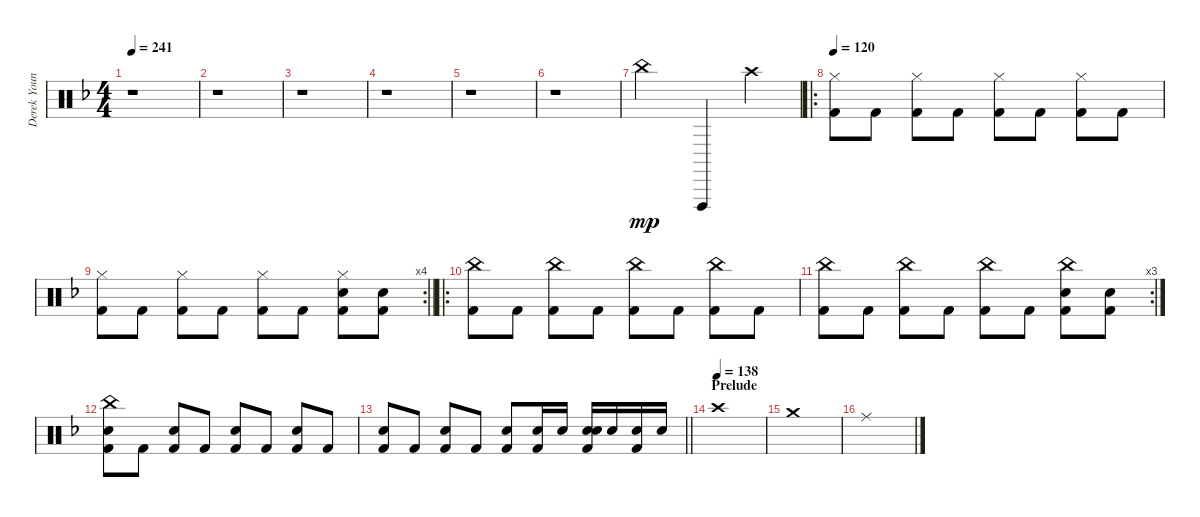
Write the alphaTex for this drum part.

\track ("Derek Youngsma" "Derek Youn") {instrument percussion}
\staff {score}
\articulation defaults
\ts (4 4)
\tempo 241
\clef neutral
\ks f
r.1{dy mp} |
r.1 |
r.1 |
r.1 |
r.1 |
r.1 |
"China (hit)".2 "Vibraslap (hit)".4 "Crash high (hit)".4 |
\ro
\tempo 120
("Hi-Hat (closed)" "Kick (hit) 2").8 "Kick (hit) 2".8 ("Hi-Hat (closed)" "Kick (hit) 2").8 "Kick (hit) 2".8 ("Hi-Hat (closed)" "Kick (hit) 2").8 "Kick (hit) 2".8 ("Hi-Hat (closed)" "Kick (hit) 2").8 "Kick (hit) 2".8 |
\rc 4
\barLineRight lightlight
("Hi-Hat (closed)" "Kick (hit) 2").8 "Kick (hit) 2".8 ("Hi-Hat (closed)" "Kick (hit) 2").8 "Kick (hit) 2".8 ("Hi-Hat (closed)" "Kick (hit) 2").8 "Kick (hit) 2".8 ("Hi-Hat (closed)" "Electric Snare (hit)" "Kick (hit) 2").8 ("Electric Snare (hit)" "Kick (hit) 2").8 |
\ro
("China (hit)" "Kick (hit) 2").8 "Kick (hit) 2".8 ("China (hit)" "Kick (hit) 2").8 "Kick (hit) 2".8 ("China (hit)" "Kick (hit) 2").8 "Kick (hit) 2".8 ("China (hit)" "Kick (hit) 2").8 "Kick (hit) 2".8 |
\rc 3
("China (hit)" "Kick (hit) 2").8 "Kick (hit) 2".8 ("China (hit)" "Kick (hit) 2").8 "Kick (hit) 2".8 ("China (hit)" "Kick (hit) 2").8 "Kick (hit) 2".8 ("China (hit)" "Electric Snare (hit)" "Kick (hit) 2").8 ("Electric Snare (hit)" "Kick (hit) 2").8 |
("China (hit)" "Snare (hit) 2" "Kick (hit) 2").8 "Kick (hit) 2".8 ("Snare (hit) 2" "Kick (hit) 2").8 "Kick (hit) 2".8 ("Snare (hit) 2" "Kick (hit) 2").8 "Kick (hit) 2".8 ("Snare (hit) 2" "Kick (hit) 2").8 "Kick (hit) 2".8 |
\barLineRight lightlight
("Snare (hit) 2" "Kick (hit) 2").8 "Kick (hit) 2".8 ("Snare (hit) 2" "Kick (hit) 2").8 "Kick (hit) 2".8 ("Snare (hit) 2" "Kick (hit) 2").8 ("Electric Snare (hit)" "Kick (hit) 2").16 "Electric Snare (hit)".16 ("Electric Snare (hit)" "Snare (hit) 2" "Kick (hit) 2").16 "Electric Snare (hit)".16 ("Electric Snare (hit)" "Kick (hit) 2").16 "Electric Snare (hit)".16 |
\section ("" "Prelude")
\tempo (138)
"Crash high (hit)".1 |
"Crash medium (hit)".1 |
"Ride (middle)".1
